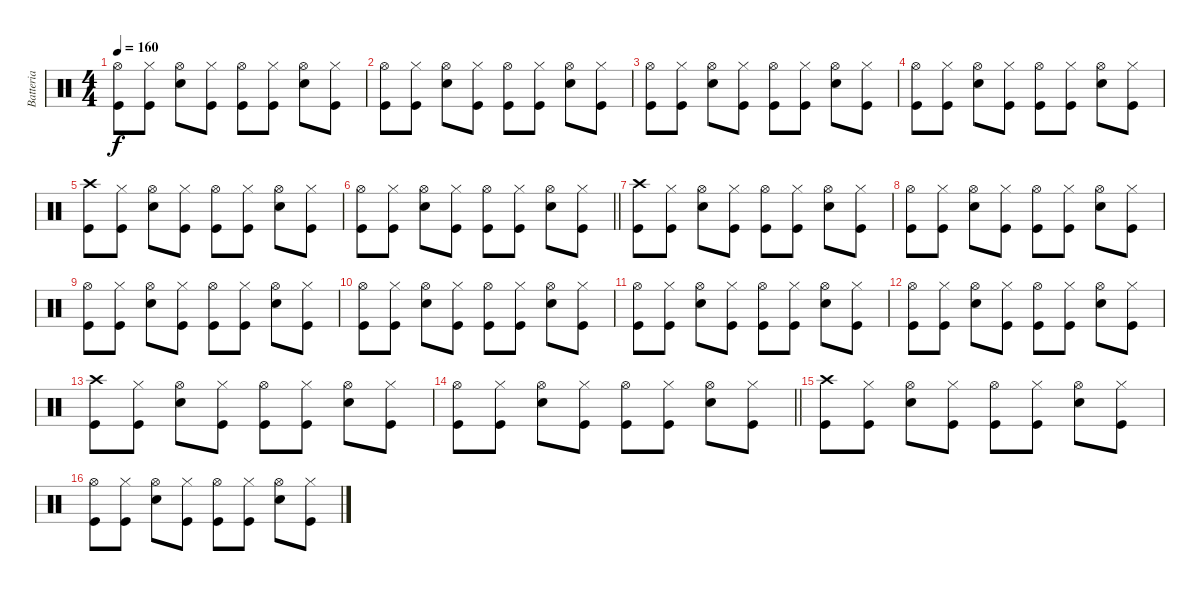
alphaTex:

\track ("Batteria" "Batteria") {instrument percussion}
\staff {score}
\articulation defaults
\ts (4 4)
\tempo 160
\clef neutral
\ks c
("Kick (hit)" "Hi-Hat (open)").8{dy f} ("Kick (hit)" "Hi-Hat (closed)").8 ("Snare (hit) 2" "Hi-Hat (open)").8 ("Kick (hit)" "Hi-Hat (closed)").8 ("Kick (hit)" "Hi-Hat (open)").8 ("Kick (hit)" "Hi-Hat (closed)").8 ("Snare (hit) 2" "Hi-Hat (open)").8 ("Kick (hit)" "Hi-Hat (closed)").8 |
("Kick (hit)" "Hi-Hat (open)").8 ("Kick (hit)" "Hi-Hat (closed)").8 ("Snare (hit) 2" "Hi-Hat (open)").8 ("Kick (hit)" "Hi-Hat (closed)").8 ("Kick (hit)" "Hi-Hat (open)").8 ("Kick (hit)" "Hi-Hat (closed)").8 ("Snare (hit) 2" "Hi-Hat (open)").8 ("Kick (hit)" "Hi-Hat (closed)").8 |
("Kick (hit)" "Hi-Hat (open)").8 ("Kick (hit)" "Hi-Hat (closed)").8 ("Snare (hit) 2" "Hi-Hat (open)").8 ("Kick (hit)" "Hi-Hat (closed)").8 ("Kick (hit)" "Hi-Hat (open)").8 ("Kick (hit)" "Hi-Hat (closed)").8 ("Snare (hit) 2" "Hi-Hat (open)").8 ("Kick (hit)" "Hi-Hat (closed)").8 |
("Kick (hit)" "Hi-Hat (open)").8 ("Kick (hit)" "Hi-Hat (closed)").8 ("Snare (hit) 2" "Hi-Hat (open)").8 ("Kick (hit)" "Hi-Hat (closed)").8 ("Kick (hit)" "Hi-Hat (open)").8 ("Kick (hit)" "Hi-Hat (closed)").8 ("Snare (hit) 2" "Hi-Hat (open)").8 ("Kick (hit)" "Hi-Hat (closed)").8 |
("Kick (hit)" "Crash high (hit)").8 ("Kick (hit)" "Hi-Hat (closed)").8 ("Snare (hit) 2" "Hi-Hat (open)").8 ("Kick (hit)" "Hi-Hat (closed)").8 ("Kick (hit)" "Hi-Hat (open)").8 ("Kick (hit)" "Hi-Hat (closed)").8 ("Snare (hit) 2" "Hi-Hat (open)").8 ("Kick (hit)" "Hi-Hat (closed)").8 |
\barLineRight lightlight
("Kick (hit)" "Hi-Hat (open)").8 ("Kick (hit)" "Hi-Hat (closed)").8 ("Snare (hit) 2" "Hi-Hat (open)").8 ("Kick (hit)" "Hi-Hat (closed)").8 ("Kick (hit)" "Hi-Hat (open)").8 ("Kick (hit)" "Hi-Hat (closed)").8 ("Snare (hit) 2" "Hi-Hat (open)").8 ("Kick (hit)" "Hi-Hat (closed)").8 |
("Kick (hit)" "Crash high (hit)").8 ("Kick (hit)" "Hi-Hat (closed)").8 ("Snare (hit) 2" "Hi-Hat (open)").8 ("Kick (hit)" "Hi-Hat (closed)").8 ("Kick (hit)" "Hi-Hat (open)").8 ("Kick (hit)" "Hi-Hat (closed)").8 ("Snare (hit) 2" "Hi-Hat (open)").8 ("Kick (hit)" "Hi-Hat (closed)").8 |
("Kick (hit)" "Hi-Hat (open)").8 ("Kick (hit)" "Hi-Hat (closed)").8 ("Snare (hit) 2" "Hi-Hat (open)").8 ("Kick (hit)" "Hi-Hat (closed)").8 ("Kick (hit)" "Hi-Hat (open)").8 ("Kick (hit)" "Hi-Hat (closed)").8 ("Snare (hit) 2" "Hi-Hat (open)").8 ("Kick (hit)" "Hi-Hat (closed)").8 |
("Kick (hit)" "Hi-Hat (open)").8 ("Kick (hit)" "Hi-Hat (closed)").8 ("Snare (hit) 2" "Hi-Hat (open)").8 ("Kick (hit)" "Hi-Hat (closed)").8 ("Kick (hit)" "Hi-Hat (open)").8 ("Kick (hit)" "Hi-Hat (closed)").8 ("Snare (hit) 2" "Hi-Hat (open)").8 ("Kick (hit)" "Hi-Hat (closed)").8 |
("Kick (hit)" "Hi-Hat (open)").8 ("Kick (hit)" "Hi-Hat (closed)").8 ("Snare (hit) 2" "Hi-Hat (open)").8 ("Kick (hit)" "Hi-Hat (closed)").8 ("Kick (hit)" "Hi-Hat (open)").8 ("Kick (hit)" "Hi-Hat (closed)").8 ("Snare (hit) 2" "Hi-Hat (open)").8 ("Kick (hit)" "Hi-Hat (closed)").8 |
("Kick (hit)" "Hi-Hat (open)").8 ("Kick (hit)" "Hi-Hat (closed)").8 ("Snare (hit) 2" "Hi-Hat (open)").8 ("Kick (hit)" "Hi-Hat (closed)").8 ("Kick (hit)" "Hi-Hat (open)").8 ("Kick (hit)" "Hi-Hat (closed)").8 ("Snare (hit) 2" "Hi-Hat (open)").8 ("Kick (hit)" "Hi-Hat (closed)").8 |
("Kick (hit)" "Hi-Hat (open)").8 ("Kick (hit)" "Hi-Hat (closed)").8 ("Snare (hit) 2" "Hi-Hat (open)").8 ("Kick (hit)" "Hi-Hat (closed)").8 ("Kick (hit)" "Hi-Hat (open)").8 ("Kick (hit)" "Hi-Hat (closed)").8 ("Snare (hit) 2" "Hi-Hat (open)").8 ("Kick (hit)" "Hi-Hat (closed)").8 |
("Kick (hit)" "Crash high (hit)").8 ("Kick (hit)" "Hi-Hat (closed)").8 ("Snare (hit) 2" "Hi-Hat (open)").8 ("Kick (hit)" "Hi-Hat (closed)").8 ("Kick (hit)" "Hi-Hat (open)").8 ("Kick (hit)" "Hi-Hat (closed)").8 ("Snare (hit) 2" "Hi-Hat (open)").8 ("Kick (hit)" "Hi-Hat (closed)").8 |
\barLineRight lightlight
("Kick (hit)" "Hi-Hat (open)").8 ("Kick (hit)" "Hi-Hat (closed)").8 ("Snare (hit) 2" "Hi-Hat (open)").8 ("Kick (hit)" "Hi-Hat (closed)").8 ("Kick (hit)" "Hi-Hat (open)").8 ("Kick (hit)" "Hi-Hat (closed)").8 ("Snare (hit) 2" "Hi-Hat (open)").8 ("Kick (hit)" "Hi-Hat (closed)").8 |
("Kick (hit)" "Crash high (hit)").8 ("Kick (hit)" "Hi-Hat (closed)").8 ("Snare (hit) 2" "Hi-Hat (open)").8 ("Kick (hit)" "Hi-Hat (closed)").8 ("Kick (hit)" "Hi-Hat (open)").8 ("Kick (hit)" "Hi-Hat (closed)").8 ("Snare (hit) 2" "Hi-Hat (open)").8 ("Kick (hit)" "Hi-Hat (closed)").8 |
("Kick (hit)" "Hi-Hat (open)").8 ("Kick (hit)" "Hi-Hat (closed)").8 ("Snare (hit) 2" "Hi-Hat (open)").8 ("Kick (hit)" "Hi-Hat (closed)").8 ("Kick (hit)" "Hi-Hat (open)").8 ("Kick (hit)" "Hi-Hat (closed)").8 ("Snare (hit) 2" "Hi-Hat (open)").8 ("Kick (hit)" "Hi-Hat (closed)").8
